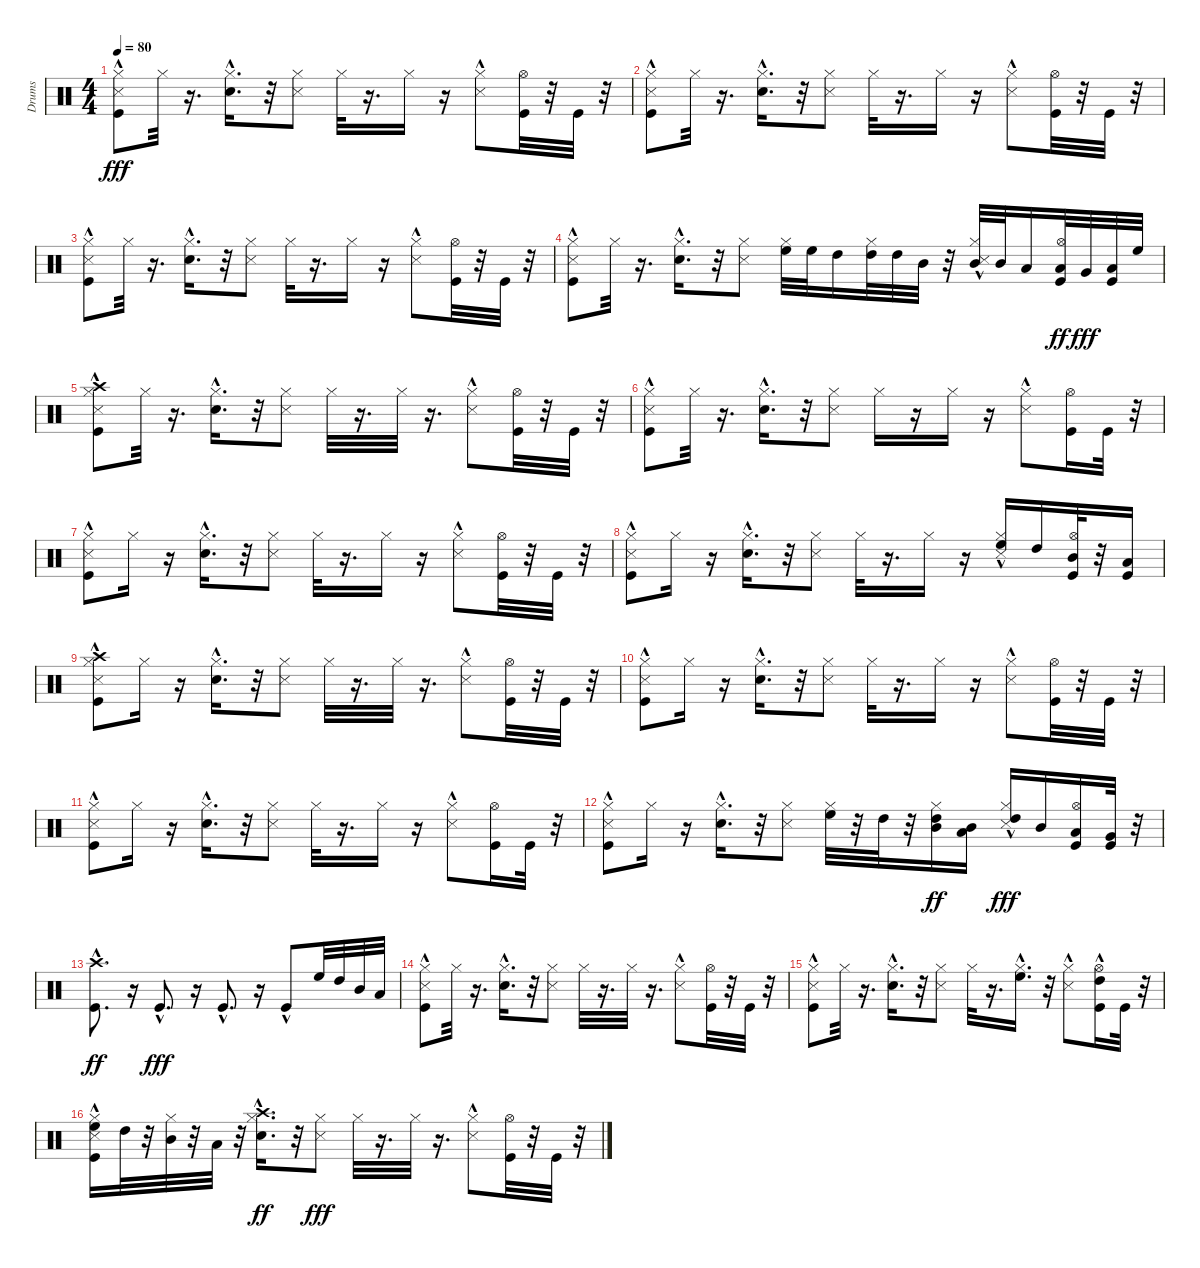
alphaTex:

\track ("Drums" "Drums") {instrument percussion}
\staff {score}
\articulation defaults
\ts (4 4)
\tempo 80
\clef neutral
\ks c
("Snare (side stick) 3" "Kick (hit)"{hac} "Hi-Hat (closed)").8{dy fff} "Hi-Hat (closed)".32 r.16{d} ("Electric Snare (hit)"{hac} "Hi-Hat (closed)").16{d} r.32 ("Snare (side stick) 3" "Hi-Hat (closed)").8 "Hi-Hat (closed)".32 r.16{d} "Hi-Hat (closed)".16 r.16 ("Snare (side stick) 3"{hac} "Hi-Hat (closed)").8 ("Hi-Hat (open)" "Kick (hit)").32 r.32 "Kick (hit)".32 r.32 |
("Snare (side stick) 3" "Kick (hit)"{hac} "Hi-Hat (closed)").8 "Hi-Hat (closed)".32 r.16{d} ("Electric Snare (hit)"{hac} "Hi-Hat (closed)").16{d} r.32 ("Hi-Hat (closed)" "Snare (side stick) 3").8 "Hi-Hat (closed)".32 r.16{d} "Hi-Hat (closed)".16 r.16 ("Snare (side stick) 3"{hac} "Hi-Hat (closed)").8 ("Kick (hit)" "Hi-Hat (open)").32 r.32 "Kick (hit)".32 r.32 |
("Snare (side stick) 3" "Kick (hit)"{hac} "Hi-Hat (closed)").8 "Hi-Hat (closed)".32 r.16{d} ("Electric Snare (hit)"{hac} "Hi-Hat (closed)").16{d} r.32 ("Snare (side stick) 3" "Hi-Hat (closed)").8 "Hi-Hat (closed)".32 r.16{d} "Hi-Hat (closed)".16 r.16 ("Snare (side stick) 3"{hac} "Hi-Hat (closed)").8 ("Hi-Hat (open)" "Kick (hit)").32 r.32 "Kick (hit)".32 r.32 |
("Snare (side stick) 3" "Kick (hit)"{hac} "Hi-Hat (closed)").8 "Hi-Hat (closed)".32 r.16{d} ("Electric Snare (hit)"{hac} "Hi-Hat (closed)").16{d} r.32 ("Hi-Hat (closed)" "Snare (side stick) 3").8 ("Hi-Hat (closed)" "High Floor Tom (hit)").32 "High Floor Tom (hit)".32 "High Tom (hit)".16 ("Hi-Hat (closed)" "High Tom (hit)").32 "High Tom (hit)".32 "Mid Tom (hit)".32 r.32 ("Snare (side stick) 3"{hac} "Hi-Hat (closed)" "Mid Tom (hit)").32 "Mid Tom (hit)".32 "Low Tom (hit)".16 ("Hi-Hat (open)" "Kick (hit)" "Low Tom (hit)").32{dy ff} "Very Low Tom (hit)".32{dy fff} ("Kick (hit)" "Low Floor Tom (hit)").32 "High Floor Tom (hit)".32 |
("Snare (side stick) 3" "Kick (hit)"{hac} "Hi-Hat (closed)" "Crash high (hit)"{hac}).8 "Hi-Hat (closed)".32 r.16{d} ("Hi-Hat (closed)" "Electric Snare (hit)"{hac}).16{d} r.32 ("Snare (side stick) 3" "Hi-Hat (closed)").8 "Hi-Hat (closed)".32 r.16{d} "Hi-Hat (closed)".32 r.16{d} ("Snare (side stick) 3"{hac} "Hi-Hat (closed)").8 ("Kick (hit)" "Hi-Hat (open)").32 r.32 "Kick (hit)".32 r.32 |
("Snare (side stick) 3" "Kick (hit)"{hac} "Hi-Hat (closed)").8 "Hi-Hat (closed)".32 r.16{d} ("Hi-Hat (closed)" "Electric Snare (hit)"{hac}).16{d} r.32 ("Hi-Hat (closed)" "Snare (side stick) 3").8 "Hi-Hat (closed)".16 r.16 "Hi-Hat (closed)".16 r.16 ("Hi-Hat (closed)" "Snare (side stick) 3"{hac}).8 ("Hi-Hat (open)" "Kick (hit)").16 "Kick (hit)".32 r.32 |
("Snare (side stick) 3" "Kick (hit)"{hac} "Hi-Hat (closed)").8 "Hi-Hat (closed)".16 r.16 ("Electric Snare (hit)"{hac} "Hi-Hat (closed)").16{d} r.32 ("Snare (side stick) 3" "Hi-Hat (closed)").8 "Hi-Hat (closed)".32 r.16{d} "Hi-Hat (closed)".16 r.16 ("Snare (side stick) 3"{hac} "Hi-Hat (closed)").8 ("Hi-Hat (open)" "Kick (hit)").32 r.32 "Kick (hit)".32 r.32 |
("Snare (side stick) 3" "Kick (hit)"{hac} "Hi-Hat (closed)").8 "Hi-Hat (closed)".16 r.16 ("Electric Snare (hit)"{hac} "Hi-Hat (closed)").16{d} r.32 ("Snare (side stick) 3" "Hi-Hat (closed)").8 "Hi-Hat (closed)".32 r.16{d} "Hi-Hat (closed)".16 r.16 ("High Floor Tom (hit)" "Snare (side stick) 3"{hac} "Hi-Hat (closed)").16 "High Tom (hit)".16 ("Hi-Hat (open)" "Kick (hit)" "Mid Tom (hit)").32 r.32 ("Kick (hit)" "Low Tom (hit)").16 |
("Snare (side stick) 3" "Kick (hit)"{hac} "Hi-Hat (closed)" "Crash high (hit)"{hac}).8 "Hi-Hat (closed)".16 r.16 ("Electric Snare (hit)"{hac} "Hi-Hat (closed)").16{d} r.32 ("Snare (side stick) 3" "Hi-Hat (closed)").8 "Hi-Hat (closed)".32 r.16{d} "Hi-Hat (closed)".32 r.16{d} ("Snare (side stick) 3"{hac} "Hi-Hat (closed)").8 ("Kick (hit)" "Hi-Hat (open)").32 r.32 "Kick (hit)".32 r.32 |
("Snare (side stick) 3" "Kick (hit)"{hac} "Hi-Hat (closed)").8 "Hi-Hat (closed)".16 r.16 ("Hi-Hat (closed)" "Electric Snare (hit)"{hac}).16{d} r.32 ("Snare (side stick) 3" "Hi-Hat (closed)").8 "Hi-Hat (closed)".32 r.16{d} "Hi-Hat (closed)".16 r.16 ("Snare (side stick) 3"{hac} "Hi-Hat (closed)").8 ("Kick (hit)" "Hi-Hat (open)").32 r.32 "Kick (hit)".32 r.32 |
("Snare (side stick) 3" "Kick (hit)"{hac} "Hi-Hat (closed)").8 "Hi-Hat (closed)".16 r.16 ("Electric Snare (hit)"{hac} "Hi-Hat (closed)").16{d} r.32 ("Snare (side stick) 3" "Hi-Hat (closed)").8 "Hi-Hat (closed)".32 r.16{d} "Hi-Hat (closed)".16 r.16 ("Snare (side stick) 3"{hac} "Hi-Hat (closed)").8 ("Hi-Hat (open)" "Kick (hit)").16 "Kick (hit)".32 r.32 |
("Snare (side stick) 3" "Kick (hit)"{hac} "Hi-Hat (closed)").8 "Hi-Hat (closed)".16 r.16 ("Electric Snare (hit)"{hac} "Hi-Hat (closed)").16{d} r.32 ("Snare (side stick) 3" "Hi-Hat (closed)").8 ("Hi-Hat (closed)" "High Floor Tom (hit)").32 r.32 "High Tom (hit)".32 r.32 ("Mid Tom (hit)" "Hi-Hat (closed)" "High Tom (hit)").16{dy ff} ("Mid Tom (hit)" "Low Tom (hit)").16 ("Snare (side stick) 3"{hac} "Hi-Hat (closed)" "High Tom (hit)").16{dy fff} "Mid Tom (hit)".16 ("Kick (hit)" "Low Tom (hit)" "Hi-Hat (open)").16 ("Kick (hit)" "Very Low Tom (hit)").32 r.32 |
("Kick (hit)"{hac} "Crash high (hit)"{hac}).8{d dy ff} r.16 "Kick (hit)"{hac}.8{d dy fff} r.16 "Kick (hit)"{hac}.8{d} r.16 "Kick (hit)"{hac}.8 "High Floor Tom (hit)".32 "High Tom (hit)".32 "Mid Tom (hit)".32 "Low Tom (hit)".32 |
("Snare (side stick) 3" "Kick (hit)"{hac} "Hi-Hat (closed)").8 "Hi-Hat (closed)".32 r.16{d} ("Hi-Hat (closed)" "Electric Snare (hit)"{hac}).16{d} r.32 ("Snare (side stick) 3" "Hi-Hat (closed)").8 "Hi-Hat (closed)".32 r.16{d} "Hi-Hat (closed)".32 r.16{d} ("Snare (side stick) 3"{hac} "Hi-Hat (closed)").8 ("Hi-Hat (open)" "Kick (hit)").32 r.32 "Kick (hit)".32 r.32 |
("Snare (side stick) 3" "Kick (hit)"{hac} "Hi-Hat (closed)").8 "Hi-Hat (closed)".32 r.16{d} ("Hi-Hat (closed)" "Electric Snare (hit)"{hac}).16{d} r.32 ("Snare (side stick) 3" "Hi-Hat (closed)").8 "Hi-Hat (closed)".32 r.16{d} ("Hi-Hat (closed)" "High Floor Tom (hit)"{hac}).16{d} r.32 ("Hi-Hat (closed)" "Snare (side stick) 3"{hac}).8 ("Hi-Hat (open)" "Kick (hit)" "High Tom (hit)"{hac}).16 "Kick (hit)".32 r.32 |
("Snare (side stick) 3" "Kick (hit)"{hac} "Hi-Hat (closed)" "High Floor Tom (hit)").16 "High Tom (hit)".32 r.32 ("Hi-Hat (closed)" "Mid Tom (hit)").32 r.32 "Low Tom (hit)".32 r.32 ("Electric Snare (hit)"{hac} "Hi-Hat (closed)" "Crash high (hit)").16{d dy ff} r.32 ("Snare (side stick) 3" "Hi-Hat (closed)").8{dy fff} "Hi-Hat (closed)".32 r.16{d} "Hi-Hat (closed)".32 r.16{d} ("Snare (side stick) 3"{hac} "Hi-Hat (closed)").8 ("Hi-Hat (open)" "Kick (hit)").32 r.32 "Kick (hit)".32 r.32
